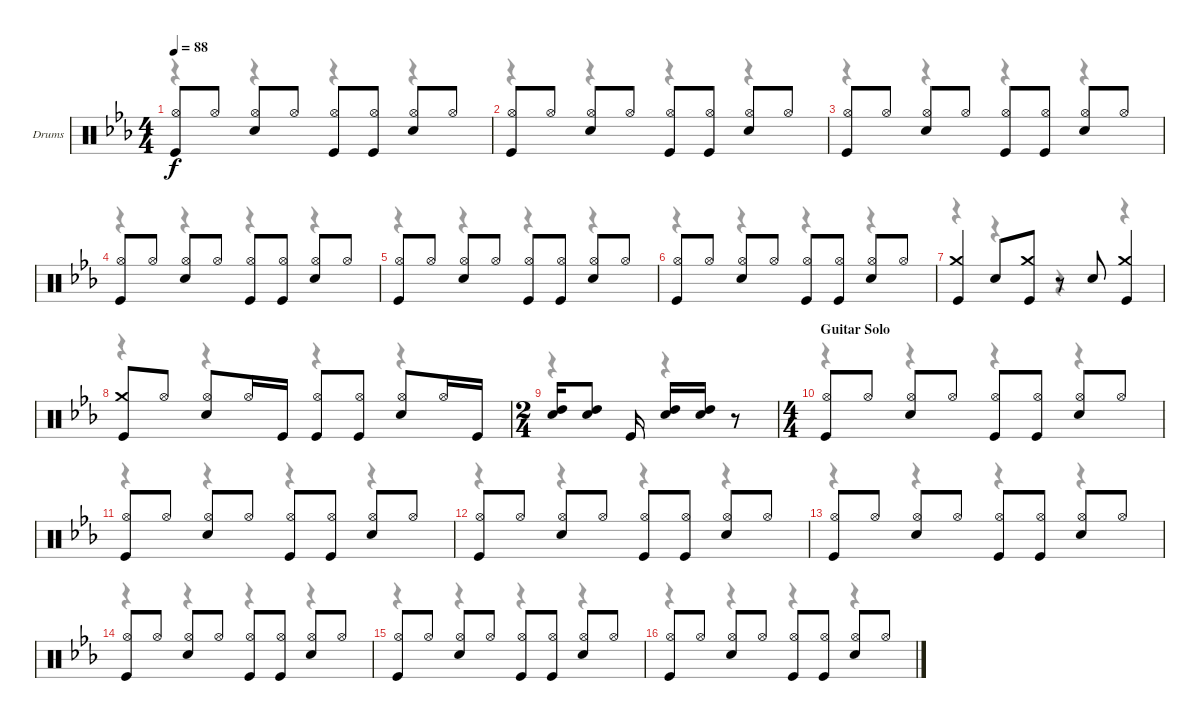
\bracketExtendMode groupsimilarinstruments
\firstSystemTrackNameOrientation horizontal
\otherSystemsTrackNameOrientation horizontal
\track ("Ian Paice - Drums" "Drums") {instrument percussion}
\staff {score}
\articulation defaults
\voice
\ts (4 4)
\tempo 88
\clef neutral
\ks cminor
("Hi-Hat (open)" "Kick (hit)").8{dy f} "Hi-Hat (open)".8 ("Hi-Hat (open)" "Snare (hit) 2").8 "Hi-Hat (open)".8 ("Hi-Hat (open)" "Kick (hit)").8 ("Hi-Hat (open)" "Kick (hit)").8 ("Hi-Hat (open)" "Snare (hit) 2").8 "Hi-Hat (open)".8 |
("Hi-Hat (open)" "Kick (hit)").8 "Hi-Hat (open)".8 ("Hi-Hat (open)" "Snare (hit) 2").8 "Hi-Hat (open)".8 ("Hi-Hat (open)" "Kick (hit)").8 ("Hi-Hat (open)" "Kick (hit)").8 ("Hi-Hat (open)" "Snare (hit) 2").8 "Hi-Hat (open)".8 |
("Hi-Hat (open)" "Kick (hit)").8 "Hi-Hat (open)".8 ("Hi-Hat (open)" "Snare (hit) 2").8 "Hi-Hat (open)".8 ("Hi-Hat (open)" "Kick (hit)").8 ("Hi-Hat (open)" "Kick (hit)").8 ("Hi-Hat (open)" "Snare (hit) 2").8 "Hi-Hat (open)".8 |
("Hi-Hat (open)" "Kick (hit)").8 "Hi-Hat (open)".8 ("Hi-Hat (open)" "Snare (hit) 2").8 "Hi-Hat (open)".8 ("Hi-Hat (open)" "Kick (hit)").8 ("Hi-Hat (open)" "Kick (hit)").8 ("Hi-Hat (open)" "Snare (hit) 2").8 "Hi-Hat (open)".8 |
("Hi-Hat (open)" "Kick (hit)").8 "Hi-Hat (open)".8 ("Hi-Hat (open)" "Snare (hit) 2").8 "Hi-Hat (open)".8 ("Hi-Hat (open)" "Kick (hit)").8 ("Hi-Hat (open)" "Kick (hit)").8 ("Hi-Hat (open)" "Snare (hit) 2").8 "Hi-Hat (open)".8 |
("Hi-Hat (open)" "Kick (hit)").8 "Hi-Hat (open)".8 ("Hi-Hat (open)" "Snare (hit) 2").8 "Hi-Hat (open)".8 ("Hi-Hat (open)" "Kick (hit)").8 ("Hi-Hat (open)" "Kick (hit)").8 ("Hi-Hat (open)" "Snare (hit) 2").8 "Hi-Hat (open)".8 |
("Crash medium (hit)" "Kick (hit)").4 "Snare (hit) 2".8 ("Crash medium (hit)" "Kick (hit)").8 r.8 "Snare (hit) 2".8 ("Crash medium (hit)" "Kick (hit)").4 |
("Crash medium (hit)" "Kick (hit)").8 "Hi-Hat (open)".8 ("Hi-Hat (open)" "Snare (hit) 2").8 "Hi-Hat (open)".16 "Kick (hit)".16 ("Hi-Hat (open)" "Kick (hit)").8 ("Hi-Hat (open)" "Kick (hit)").8 ("Hi-Hat (open)" "Snare (hit) 2").8 "Hi-Hat (open)".16 "Kick (hit)".16 |
\ts (2 4)
\beaming (8 1 1 1 1)
("Snare (hit) 2" "High Tom (hit)").16 ("Snare (hit) 2" "High Tom (hit)").8 "Kick (hit)".16 ("Snare (hit) 2" "High Tom (hit)").16 ("Snare (hit) 2" "High Tom (hit)").16 r.8 |
\ts (4 4)
\beaming (8 2 2 2 2)
\section ("" "Guitar Solo")
("Hi-Hat (open)" "Kick (hit)").8 "Hi-Hat (open)".8 ("Hi-Hat (open)" "Snare (hit) 2").8 "Hi-Hat (open)".8 ("Hi-Hat (open)" "Kick (hit)").8 ("Hi-Hat (open)" "Kick (hit)").8 ("Hi-Hat (open)" "Snare (hit) 2").8 "Hi-Hat (open)".8 |
("Hi-Hat (open)" "Kick (hit)").8 "Hi-Hat (open)".8 ("Hi-Hat (open)" "Snare (hit) 2").8 "Hi-Hat (open)".8 ("Hi-Hat (open)" "Kick (hit)").8 ("Hi-Hat (open)" "Kick (hit)").8 ("Hi-Hat (open)" "Snare (hit) 2").8 "Hi-Hat (open)".8 |
("Hi-Hat (open)" "Kick (hit)").8 "Hi-Hat (open)".8 ("Hi-Hat (open)" "Snare (hit) 2").8 "Hi-Hat (open)".8 ("Hi-Hat (open)" "Kick (hit)").8 ("Hi-Hat (open)" "Kick (hit)").8 ("Hi-Hat (open)" "Snare (hit) 2").8 "Hi-Hat (open)".8 |
("Hi-Hat (open)" "Kick (hit)").8 "Hi-Hat (open)".8 ("Hi-Hat (open)" "Snare (hit) 2").8 "Hi-Hat (open)".8 ("Hi-Hat (open)" "Kick (hit)").8 ("Hi-Hat (open)" "Kick (hit)").8 ("Hi-Hat (open)" "Snare (hit) 2").8 "Hi-Hat (open)".8 |
("Hi-Hat (open)" "Kick (hit)").8 "Hi-Hat (open)".8 ("Hi-Hat (open)" "Snare (hit) 2").8 "Hi-Hat (open)".8 ("Hi-Hat (open)" "Kick (hit)").8 ("Hi-Hat (open)" "Kick (hit)").8 ("Hi-Hat (open)" "Snare (hit) 2").8 "Hi-Hat (open)".8 |
("Hi-Hat (open)" "Kick (hit)").8 "Hi-Hat (open)".8 ("Hi-Hat (open)" "Snare (hit) 2").8 "Hi-Hat (open)".8 ("Hi-Hat (open)" "Kick (hit)").8 ("Hi-Hat (open)" "Kick (hit)").8 ("Hi-Hat (open)" "Snare (hit) 2").8 "Hi-Hat (open)".8 |
("Hi-Hat (open)" "Kick (hit)").8 "Hi-Hat (open)".8 ("Hi-Hat (open)" "Snare (hit) 2").8 "Hi-Hat (open)".8 ("Hi-Hat (open)" "Kick (hit)").8 ("Hi-Hat (open)" "Kick (hit)").8 ("Hi-Hat (open)" "Snare (hit) 2").8 "Hi-Hat (open)".8
\voice
\clef neutral
\ottava regular
\simile none
\ks cminor
r.4{dy mf} r.4 r.4 r.4 |
r.4 r.4 r.4 r.4 |
r.4 r.4 r.4 r.4 |
r.4 r.4 r.4 r.4 |
r.4 r.4 r.4 r.4 |
r.4 r.4 r.4 r.4 |
r.4 r.4 r.4 r.4 |
r.4 r.4 r.4 r.4 |
r.4 r.4 |
r.4 r.4 r.4 r.4 |
r.4 r.4 r.4 r.4 |
r.4 r.4 r.4 r.4 |
r.4 r.4 r.4 r.4 |
r.4 r.4 r.4 r.4 |
r.4 r.4 r.4 r.4 |
r.4 r.4 r.4 r.4
